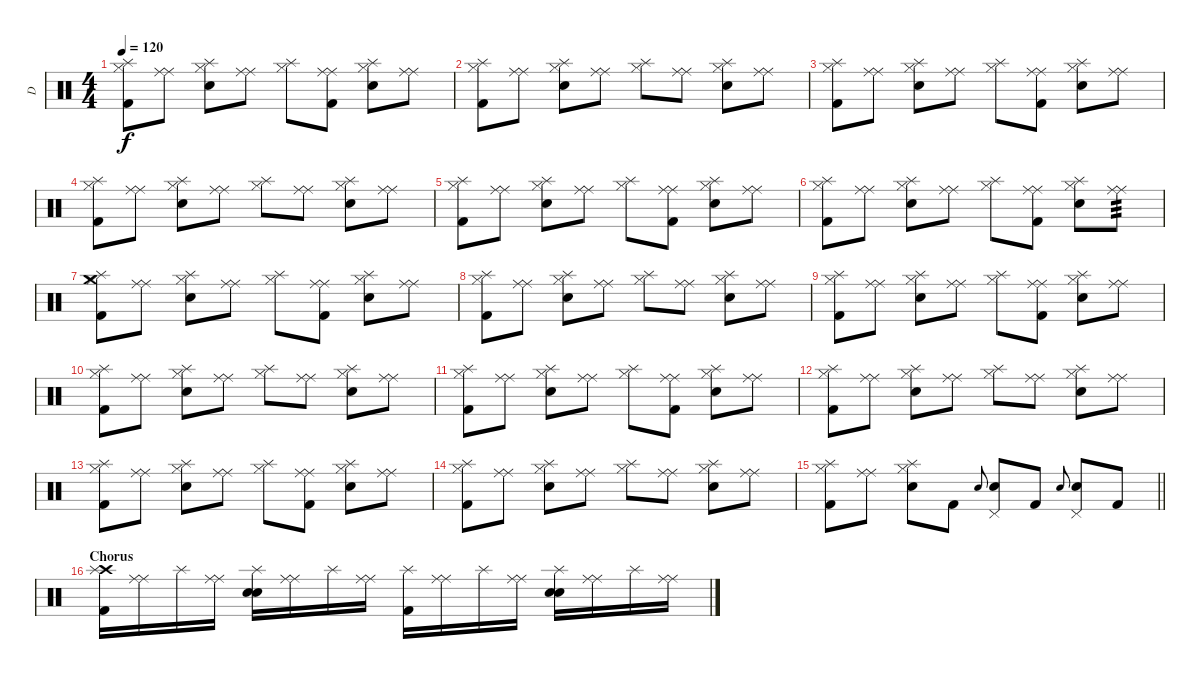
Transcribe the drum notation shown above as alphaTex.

\track ("D" "D") {instrument percussion}
\staff {score}
\articulation defaults
\ts (4 4)
\tempo 120
\clef neutral
\ks c
("Kick (hit) 2" "Splash (hit)" "Hi-Hat (closed)").8{dy f} ("Ride (middle)" "Ride (middle)").8 ("Electric Snare (hit)" "Splash (hit)" "Hi-Hat (closed)").8 ("Ride (middle)" "Ride (middle)").8 ("Splash (hit)" "Hi-Hat (closed)").8 ("Kick (hit) 2" "Ride (middle)" "Ride (middle)").8 ("Electric Snare (hit)" "Splash (hit)" "Hi-Hat (closed)").8 ("Ride (middle)" "Ride (middle)").8 |
("Kick (hit) 2" "Splash (hit)" "Hi-Hat (closed)").8 ("Ride (middle)" "Ride (middle)").8 ("Electric Snare (hit)" "Splash (hit)" "Hi-Hat (closed)").8 ("Ride (middle)" "Ride (middle)").8 ("Splash (hit)" "Hi-Hat (closed)").8 ("Ride (middle)" "Ride (middle)").8 ("Electric Snare (hit)" "Splash (hit)" "Hi-Hat (closed)").8 ("Ride (middle)" "Ride (middle)").8 |
("Kick (hit) 2" "Splash (hit)" "Hi-Hat (closed)").8 ("Ride (middle)" "Ride (middle)").8 ("Electric Snare (hit)" "Splash (hit)" "Hi-Hat (closed)").8 ("Ride (middle)" "Ride (middle)").8 ("Splash (hit)" "Hi-Hat (closed)").8 ("Kick (hit) 2" "Ride (middle)" "Ride (middle)").8 ("Electric Snare (hit)" "Splash (hit)" "Hi-Hat (closed)").8 ("Ride (middle)" "Ride (middle)").8 |
("Kick (hit) 2" "Splash (hit)" "Hi-Hat (closed)").8 ("Ride (middle)" "Ride (middle)").8 ("Electric Snare (hit)" "Splash (hit)" "Hi-Hat (closed)").8 ("Ride (middle)" "Ride (middle)").8 ("Splash (hit)" "Hi-Hat (closed)").8 ("Ride (middle)" "Ride (middle)").8 ("Electric Snare (hit)" "Splash (hit)" "Hi-Hat (closed)").8 ("Ride (middle)" "Ride (middle)").8 |
("Kick (hit) 2" "Splash (hit)" "Hi-Hat (closed)").8 ("Ride (middle)" "Ride (middle)").8 ("Electric Snare (hit)" "Splash (hit)" "Hi-Hat (closed)").8 ("Ride (middle)" "Ride (middle)").8 ("Splash (hit)" "Hi-Hat (closed)").8 ("Kick (hit) 2" "Ride (middle)" "Ride (middle)").8 ("Electric Snare (hit)" "Splash (hit)" "Hi-Hat (closed)").8 ("Ride (middle)" "Ride (middle)").8 |
("Kick (hit) 2" "Splash (hit)" "Hi-Hat (closed)").8 ("Ride (middle)" "Ride (middle)").8 ("Electric Snare (hit)" "Splash (hit)" "Hi-Hat (closed)").8 ("Ride (middle)" "Ride (middle)").8 ("Splash (hit)" "Hi-Hat (closed)").8 ("Kick (hit) 2" "Ride (middle)" "Ride (middle)").8 ("Electric Snare (hit)" "Splash (hit)" "Hi-Hat (closed)").8 ("Ride (middle)" "Ride (middle)").8{tp 3} |
("Crash medium (hit)" "Kick (hit) 2" "Splash (hit)" "Hi-Hat (closed)").8 ("Ride (middle)" "Ride (middle)").8 ("Electric Snare (hit)" "Splash (hit)" "Hi-Hat (closed)").8 ("Ride (middle)" "Ride (middle)").8 ("Splash (hit)" "Hi-Hat (closed)").8 ("Kick (hit) 2" "Ride (middle)" "Ride (middle)").8 ("Electric Snare (hit)" "Splash (hit)" "Hi-Hat (closed)").8 ("Ride (middle)" "Ride (middle)").8 |
("Kick (hit) 2" "Splash (hit)" "Hi-Hat (closed)").8 ("Ride (middle)" "Ride (middle)").8 ("Electric Snare (hit)" "Splash (hit)" "Hi-Hat (closed)").8 ("Ride (middle)" "Ride (middle)").8 ("Splash (hit)" "Hi-Hat (closed)").8 ("Ride (middle)" "Ride (middle)").8 ("Electric Snare (hit)" "Splash (hit)" "Hi-Hat (closed)").8 ("Ride (middle)" "Ride (middle)").8 |
("Kick (hit) 2" "Splash (hit)" "Hi-Hat (closed)").8 ("Ride (middle)" "Ride (middle)").8 ("Electric Snare (hit)" "Splash (hit)" "Hi-Hat (closed)").8 ("Ride (middle)" "Ride (middle)").8 ("Splash (hit)" "Hi-Hat (closed)").8 ("Kick (hit) 2" "Ride (middle)" "Ride (middle)").8 ("Electric Snare (hit)" "Splash (hit)" "Hi-Hat (closed)").8 ("Ride (middle)" "Ride (middle)").8 |
("Kick (hit) 2" "Splash (hit)" "Hi-Hat (closed)").8 ("Ride (middle)" "Ride (middle)").8 ("Electric Snare (hit)" "Splash (hit)" "Hi-Hat (closed)").8 ("Ride (middle)" "Ride (middle)").8 ("Splash (hit)" "Hi-Hat (closed)").8 ("Ride (middle)" "Ride (middle)").8 ("Electric Snare (hit)" "Splash (hit)" "Hi-Hat (closed)").8 ("Ride (middle)" "Ride (middle)").8 |
("Kick (hit) 2" "Splash (hit)" "Hi-Hat (closed)").8 ("Ride (middle)" "Ride (middle)").8 ("Electric Snare (hit)" "Splash (hit)" "Hi-Hat (closed)").8 ("Ride (middle)" "Ride (middle)").8 ("Splash (hit)" "Hi-Hat (closed)").8 ("Kick (hit) 2" "Ride (middle)" "Ride (middle)").8 ("Electric Snare (hit)" "Splash (hit)" "Hi-Hat (closed)").8 ("Ride (middle)" "Ride (middle)").8 |
("Kick (hit) 2" "Splash (hit)" "Hi-Hat (closed)").8 ("Ride (middle)" "Ride (middle)").8 ("Electric Snare (hit)" "Splash (hit)" "Hi-Hat (closed)").8 ("Ride (middle)" "Ride (middle)").8 ("Splash (hit)" "Hi-Hat (closed)").8 ("Ride (middle)" "Ride (middle)").8 ("Electric Snare (hit)" "Splash (hit)" "Hi-Hat (closed)").8 ("Ride (middle)" "Ride (middle)").8 |
("Kick (hit) 2" "Splash (hit)" "Hi-Hat (closed)").8 ("Ride (middle)" "Ride (middle)").8 ("Electric Snare (hit)" "Splash (hit)" "Hi-Hat (closed)").8 ("Ride (middle)" "Ride (middle)").8 ("Splash (hit)" "Hi-Hat (closed)").8 ("Kick (hit) 2" "Ride (middle)" "Ride (middle)").8 ("Electric Snare (hit)" "Splash (hit)" "Hi-Hat (closed)").8 ("Ride (middle)" "Ride (middle)").8 |
("Kick (hit) 2" "Splash (hit)" "Hi-Hat (closed)").8 ("Ride (middle)" "Ride (middle)").8 ("Electric Snare (hit)" "Splash (hit)" "Hi-Hat (closed)").8 ("Ride (middle)" "Ride (middle)").8 ("Splash (hit)" "Hi-Hat (closed)").8 ("Ride (middle)" "Ride (middle)").8 ("Electric Snare (hit)" "Splash (hit)" "Hi-Hat (closed)").8 ("Ride (middle)" "Ride (middle)").8 |
\barLineRight lightlight
("Kick (hit) 2" "Splash (hit)" "Hi-Hat (closed)").8 ("Ride (middle)" "Ride (middle)").8 ("Electric Snare (hit)" "Splash (hit)" "Hi-Hat (closed)").8 "Kick (hit) 2".8 "Electric Snare (hit)".8{gr onbeat} ("Electric Snare (hit)" "Pedal Hi-Hat (hit)").8 "Kick (hit) 2".8 "Electric Snare (hit)".8{gr onbeat} ("Electric Snare (hit)" "Pedal Hi-Hat (hit)").8 "Kick (hit) 2".8 |
\section ("" "Chorus")
("Crash high (hit)" "Kick (hit) 2" "Splash (hit)").16 ("Ride (middle)" "Ride (middle)").16 "Splash (hit)".16 ("Ride (middle)" "Ride (middle)").16 ("Electric Snare (hit)" "Electric Snare (hit)" "Splash (hit)").16 ("Ride (middle)" "Ride (middle)").16 "Splash (hit)".16 ("Ride (middle)" "Ride (middle)").16 ("Kick (hit) 2" "Splash (hit)").16 ("Ride (middle)" "Ride (middle)").16 "Splash (hit)".16 ("Ride (middle)" "Ride (middle)").16 ("Electric Snare (hit)" "Electric Snare (hit)" "Splash (hit)").16 ("Ride (middle)" "Ride (middle)").16 "Splash (hit)".16 ("Ride (middle)" "Ride (middle)").16
